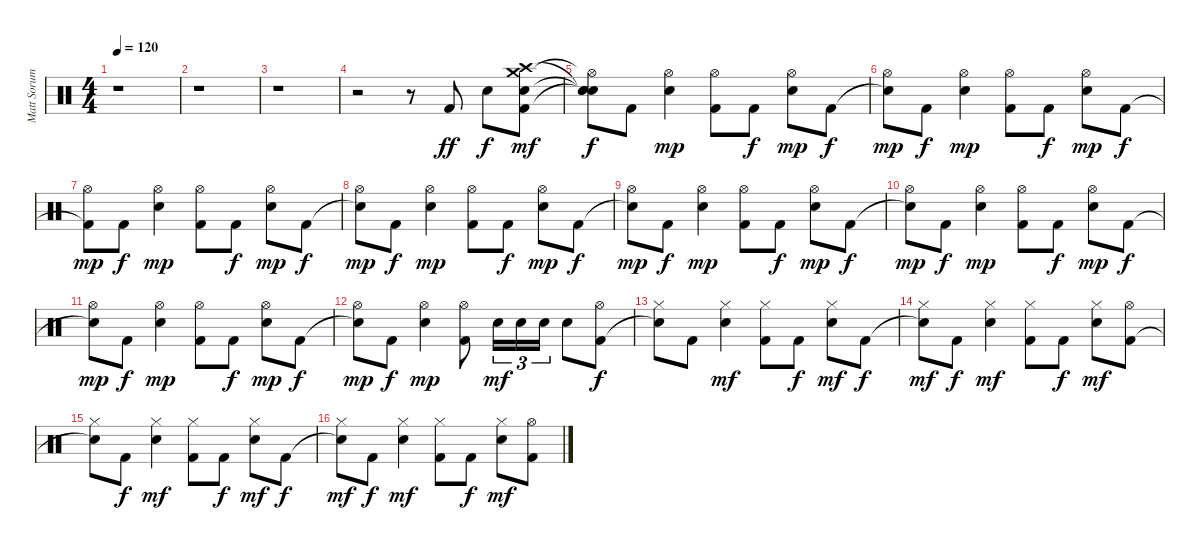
\track ("Matt Sorum" "Matt Sorum") {instrument percussion}
\staff {score}
\articulation defaults
\ts (4 4)
\tempo 120
\clef neutral
\ks c
r.1{dy ff} |
r.1 |
r.1 |
r.2 r.8 "Kick (hit) 2".8 "Snare (hit) 2".8{dy f} ("Kick (hit) 2" "Snare (hit) 2" "Crash medium (hit)" "Crash high (hit)").8{dy mf} |
("Snare (hit)"{t} "Snare (hit)"{t} "Hi-Hat (open)"{t} "Snare (hit)"{t}).8{dy f} "Kick (hit) 2".8 ("Snare (hit) 2" "Hi-Hat (open)").4{dy mp} ("Kick (hit) 2" "Hi-Hat (open)").8 "Kick (hit) 2".8{dy f} ("Snare (hit) 2" "Hi-Hat (open)").8{dy mp} "Kick (hit) 2".8{dy f} |
("Snare (hit)"{t} "Hi-Hat (open)").8{dy mp} "Kick (hit) 2".8{dy f} ("Snare (hit) 2" "Hi-Hat (open)").4{dy mp} ("Kick (hit) 2" "Hi-Hat (open)").8 "Kick (hit) 2".8{dy f} ("Snare (hit) 2" "Hi-Hat (open)").8{dy mp} "Kick (hit) 2".8{dy f} |
("Kick (hit) 2"{t} "Hi-Hat (open)").8{dy mp} "Kick (hit) 2".8{dy f} ("Snare (hit) 2" "Hi-Hat (open)").4{dy mp} ("Kick (hit) 2" "Hi-Hat (open)").8 "Kick (hit) 2".8{dy f} ("Snare (hit) 2" "Hi-Hat (open)").8{dy mp} "Kick (hit) 2".8{dy f} |
("Snare (hit)"{t} "Hi-Hat (open)").8{dy mp} "Kick (hit) 2".8{dy f} ("Snare (hit) 2" "Hi-Hat (open)").4{dy mp} ("Kick (hit) 2" "Hi-Hat (open)").8 "Kick (hit) 2".8{dy f} ("Snare (hit) 2" "Hi-Hat (open)").8{dy mp} "Kick (hit) 2".8{dy f} |
("Snare (hit)"{t} "Hi-Hat (open)").8{dy mp} "Kick (hit) 2".8{dy f} ("Snare (hit) 2" "Hi-Hat (open)").4{dy mp} ("Kick (hit) 2" "Hi-Hat (open)").8 "Kick (hit) 2".8{dy f} ("Snare (hit) 2" "Hi-Hat (open)").8{dy mp} "Kick (hit) 2".8{dy f} |
("Snare (hit)"{t} "Hi-Hat (open)").8{dy mp} "Kick (hit) 2".8{dy f} ("Snare (hit) 2" "Hi-Hat (open)").4{dy mp} ("Kick (hit) 2" "Hi-Hat (open)").8 "Kick (hit) 2".8{dy f} ("Snare (hit) 2" "Hi-Hat (open)").8{dy mp} "Kick (hit) 2".8{dy f} |
("Snare (hit)"{t} "Hi-Hat (open)").8{dy mp} "Kick (hit) 2".8{dy f} ("Snare (hit) 2" "Hi-Hat (open)").4{dy mp} ("Kick (hit) 2" "Hi-Hat (open)").8 "Kick (hit) 2".8{dy f} ("Snare (hit) 2" "Hi-Hat (open)").8{dy mp} "Kick (hit) 2".8{dy f} |
("Snare (hit)"{t} "Hi-Hat (open)").8{dy mp} "Kick (hit) 2".8{dy f} ("Snare (hit) 2" "Hi-Hat (open)").4{dy mp} ("Kick (hit) 2" "Hi-Hat (open)").8 "Snare (hit) 2".16{tu (3 2) dy mf} "Snare (hit) 2".16{tu (3 2)} "Snare (hit) 2".16{tu (3 2)} "Snare (hit) 2".8 ("Kick (hit) 2" "Hi-Hat (open)").8{dy f} |
("Snare (hit)"{t} "Hi-Hat (closed)").8 "Kick (hit) 2".8 ("Snare (hit) 2" "Hi-Hat (closed)").4{dy mf} ("Kick (hit) 2" "Hi-Hat (closed)").8 "Kick (hit) 2".8{dy f} ("Snare (hit) 2" "Hi-Hat (closed)").8{dy mf} "Kick (hit) 2".8{dy f} |
("Snare (hit)"{t} "Hi-Hat (closed)").8{dy mf} "Kick (hit) 2".8{dy f} ("Snare (hit) 2" "Hi-Hat (closed)").4{dy mf} ("Kick (hit) 2" "Hi-Hat (closed)").8 "Kick (hit) 2".8{dy f} ("Snare (hit) 2" "Hi-Hat (closed)").8{dy mf} ("Kick (hit) 2" "Hi-Hat (open)").8 |
("Snare (hit)"{t} "Hi-Hat (closed)").8 "Kick (hit) 2".8{dy f} ("Snare (hit) 2" "Hi-Hat (closed)").4{dy mf} ("Kick (hit) 2" "Hi-Hat (closed)").8 "Kick (hit) 2".8{dy f} ("Snare (hit) 2" "Hi-Hat (closed)").8{dy mf} "Kick (hit) 2".8{dy f} |
("Snare (hit)"{t} "Hi-Hat (closed)").8{dy mf} "Kick (hit) 2".8{dy f} ("Snare (hit) 2" "Hi-Hat (closed)").4{dy mf} ("Kick (hit) 2" "Hi-Hat (closed)").8 "Kick (hit) 2".8{dy f} ("Snare (hit) 2" "Hi-Hat (closed)").8{dy mf} ("Kick (hit) 2" "Hi-Hat (open)").8
